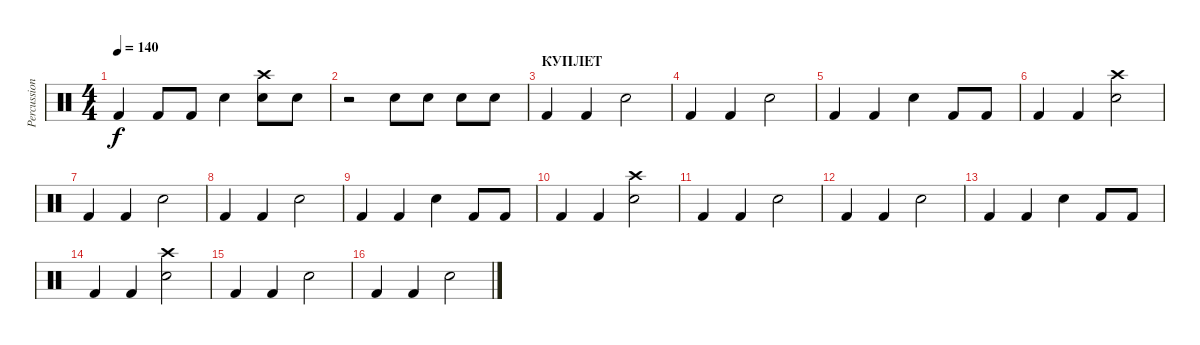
\track ("Percussion" "Percussion") {instrument percussion}
\staff {score}
\articulation defaults
\ts (4 4)
\tempo 140
\clef neutral
\ks c "Kick (hit) 2".4{dy f} "Kick (hit) 2".8 "Kick (hit) 2".8 "Snare (hit) 2".4
("Crash high (hit)" "Snare (hit) 2").8 "Snare (hit) 2".8 |
r.2 "Snare (hit) 2".8 "Snare (hit) 2".8 "Snare (hit) 2".8 "Snare (hit) 2".8 |
\section ("" "КУПЛЕТ")
"Kick (hit) 2".4 "Kick (hit) 2".4 "Snare (hit) 2".2 |
"Kick (hit) 2".4 "Kick (hit) 2".4 "Snare (hit) 2".2 |
"Kick (hit) 2".4 "Kick (hit) 2".4 "Snare (hit) 2".4 "Kick (hit) 2".8 "Kick (hit) 2".8 |
"Kick (hit) 2".4 "Kick (hit) 2".4 ("Crash high (hit)" "Snare (hit) 2").2 |
"Kick (hit) 2".4 "Kick (hit) 2".4 "Snare (hit) 2".2 |
"Kick (hit) 2".4 "Kick (hit) 2".4 "Snare (hit) 2".2 |
"Kick (hit) 2".4 "Kick (hit) 2".4 "Snare (hit) 2".4 "Kick (hit) 2".8 "Kick (hit) 2".8 |
"Kick (hit) 2".4 "Kick (hit) 2".4 ("Crash high (hit)" "Snare (hit) 2").2 |
"Kick (hit) 2".4 "Kick (hit) 2".4 "Snare (hit) 2".2 |
"Kick (hit) 2".4 "Kick (hit) 2".4 "Snare (hit) 2".2 |
"Kick (hit) 2".4 "Kick (hit) 2".4 "Snare (hit) 2".4 "Kick (hit) 2".8 "Kick (hit) 2".8 |
"Kick (hit) 2".4 "Kick (hit) 2".4 ("Crash high (hit)" "Snare (hit) 2").2 |
"Kick (hit) 2".4 "Kick (hit) 2".4 "Snare (hit) 2".2 |
"Kick (hit) 2".4 "Kick (hit) 2".4 "Snare (hit) 2".2
